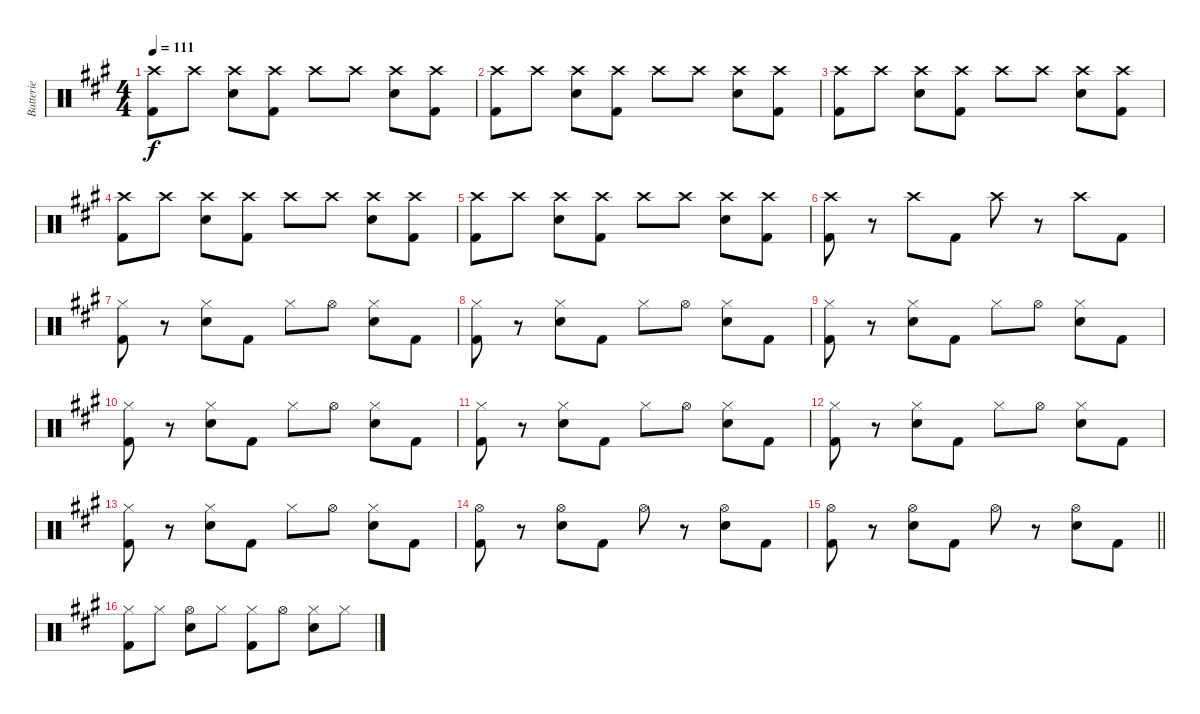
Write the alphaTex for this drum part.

\track ("Batterie" "Batterie") {instrument percussion}
\staff {score}
\articulation defaults
\ts (4 4)
\tempo 111
\clef neutral
\ks a
("Crash high (hit)" "Kick (hit) 2").8{dy f} "Crash high (hit)".8 ("Crash high (hit)" "Snare (hit) 2").8 ("Crash high (hit)" "Kick (hit) 2").8 "Crash high (hit)".8 "Crash high (hit)".8 ("Crash high (hit)" "Snare (hit) 2").8 ("Crash high (hit)" "Kick (hit) 2").8 |
("Crash high (hit)" "Kick (hit) 2").8 "Crash high (hit)".8 ("Crash high (hit)" "Snare (hit) 2").8 ("Crash high (hit)" "Kick (hit) 2").8 "Crash high (hit)".8 "Crash high (hit)".8 ("Crash high (hit)" "Snare (hit) 2").8 ("Crash high (hit)" "Kick (hit) 2").8 |
("Crash high (hit)" "Kick (hit) 2").8 "Crash high (hit)".8 ("Crash high (hit)" "Snare (hit) 2").8 ("Crash high (hit)" "Kick (hit) 2").8 "Crash high (hit)".8 "Crash high (hit)".8 ("Crash high (hit)" "Snare (hit) 2").8 ("Crash high (hit)" "Kick (hit) 2").8 |
("Crash high (hit)" "Kick (hit) 2").8 "Crash high (hit)".8 ("Crash high (hit)" "Snare (hit) 2").8 ("Crash high (hit)" "Kick (hit) 2").8 "Crash high (hit)".8 "Crash high (hit)".8 ("Crash high (hit)" "Snare (hit) 2").8 ("Crash high (hit)" "Kick (hit) 2").8 |
("Crash high (hit)" "Kick (hit) 2").8 "Crash high (hit)".8 ("Crash high (hit)" "Snare (hit) 2").8 ("Crash high (hit)" "Kick (hit) 2").8 "Crash high (hit)".8 "Crash high (hit)".8 ("Crash high (hit)" "Snare (hit) 2").8 ("Crash high (hit)" "Kick (hit) 2").8 |
("Crash high (hit)" "Kick (hit) 2").8 r.8 "Crash high (hit)".8 "Kick (hit) 2".8 "Crash high (hit)".8 r.8 "Crash high (hit)".8 "Kick (hit) 2".8 |
("Hi-Hat (closed)" "Kick (hit) 2").8 r.8 ("Hi-Hat (closed)" "Snare (hit) 2").8 "Kick (hit) 2".8 "Hi-Hat (closed)".8 "Hi-Hat (open)".8 ("Hi-Hat (closed)" "Snare (hit) 2").8 "Kick (hit) 2".8 |
("Hi-Hat (closed)" "Kick (hit) 2").8 r.8 ("Hi-Hat (closed)" "Snare (hit) 2").8 "Kick (hit) 2".8 "Hi-Hat (closed)".8 "Hi-Hat (open)".8 ("Hi-Hat (closed)" "Snare (hit) 2").8 "Kick (hit) 2".8 |
("Hi-Hat (closed)" "Kick (hit) 2").8 r.8 ("Hi-Hat (closed)" "Snare (hit) 2").8 "Kick (hit) 2".8 "Hi-Hat (closed)".8 "Hi-Hat (open)".8 ("Hi-Hat (closed)" "Snare (hit) 2").8 "Kick (hit) 2".8 |
("Hi-Hat (closed)" "Kick (hit) 2").8 r.8 ("Hi-Hat (closed)" "Snare (hit) 2").8 "Kick (hit) 2".8 "Hi-Hat (closed)".8 "Hi-Hat (open)".8 ("Hi-Hat (closed)" "Snare (hit) 2").8 "Kick (hit) 2".8 |
("Hi-Hat (closed)" "Kick (hit) 2").8 r.8 ("Hi-Hat (closed)" "Snare (hit) 2").8 "Kick (hit) 2".8 "Hi-Hat (closed)".8 "Hi-Hat (open)".8 ("Hi-Hat (closed)" "Snare (hit) 2").8 "Kick (hit) 2".8 |
("Hi-Hat (closed)" "Kick (hit) 2").8 r.8 ("Hi-Hat (closed)" "Snare (hit) 2").8 "Kick (hit) 2".8 "Hi-Hat (closed)".8 "Hi-Hat (open)".8 ("Hi-Hat (closed)" "Snare (hit) 2").8 "Kick (hit) 2".8 |
("Hi-Hat (closed)" "Kick (hit) 2").8 r.8 ("Hi-Hat (closed)" "Snare (hit) 2").8 "Kick (hit) 2".8 "Hi-Hat (closed)".8 "Hi-Hat (open)".8 ("Hi-Hat (closed)" "Snare (hit) 2").8 "Kick (hit) 2".8 |
("Hi-Hat (open)" "Kick (hit) 2").8 r.8 ("Hi-Hat (open)" "Snare (hit) 2").8 "Kick (hit) 2".8 "Hi-Hat (open)".8 r.8 ("Hi-Hat (open)" "Snare (hit) 2").8 "Kick (hit) 2".8 |
\barLineRight lightlight
("Hi-Hat (open)" "Kick (hit) 2").8 r.8 ("Hi-Hat (open)" "Snare (hit) 2").8 "Kick (hit) 2".8 "Hi-Hat (open)".8 r.8 ("Hi-Hat (open)" "Snare (hit) 2").8 "Kick (hit) 2".8 |
("Hi-Hat (closed)" "Kick (hit) 2").8 "Hi-Hat (closed)".8 ("Hi-Hat (open)" "Snare (hit) 2").8 "Hi-Hat (closed)".8 ("Hi-Hat (closed)" "Kick (hit) 2").8 "Hi-Hat (open)".8 ("Hi-Hat (closed)" "Snare (hit) 2").8 "Hi-Hat (closed)".8
